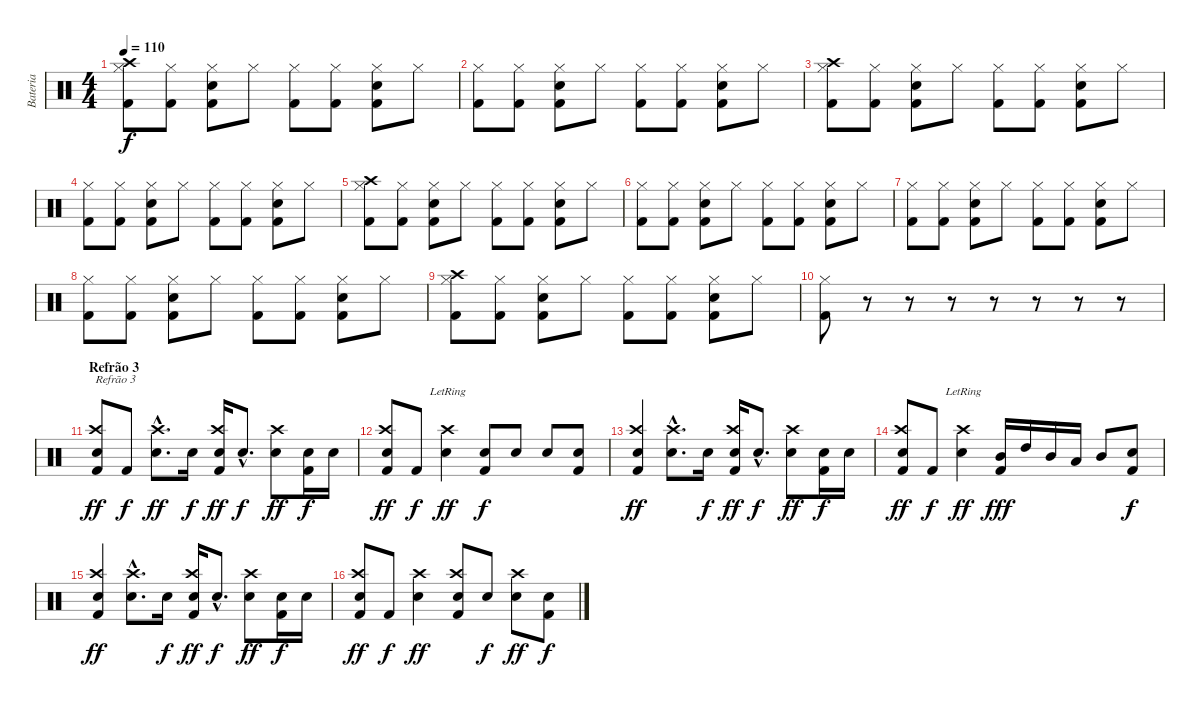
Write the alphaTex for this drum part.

\track ("Bateria" "Bateria") {instrument percussion}
\staff {score}
\articulation defaults
\ts (4 4)
\tempo 110
\clef neutral
\ks c
("Hi-Hat (closed)" "Kick (hit) 2" "Crash high (hit)").8{dy f} ("Hi-Hat (closed)" "Kick (hit) 2").8 ("Hi-Hat (closed)" "Kick (hit) 2" "Metronome (bell)").8 "Hi-Hat (closed)".8 ("Hi-Hat (closed)" "Kick (hit) 2").8 ("Hi-Hat (closed)" "Kick (hit) 2").8 ("Hi-Hat (closed)" "Kick (hit) 2" "Metronome (bell)").8 "Hi-Hat (closed)".8 |
("Hi-Hat (closed)" "Kick (hit) 2").8 ("Hi-Hat (closed)" "Kick (hit) 2").8 ("Hi-Hat (closed)" "Kick (hit) 2" "Metronome (bell)").8 "Hi-Hat (closed)".8 ("Hi-Hat (closed)" "Kick (hit) 2").8 ("Hi-Hat (closed)" "Kick (hit) 2").8 ("Hi-Hat (closed)" "Kick (hit) 2" "Metronome (bell)").8 "Hi-Hat (closed)".8 |
("Hi-Hat (closed)" "Kick (hit) 2" "Crash high (hit)").8 ("Hi-Hat (closed)" "Kick (hit) 2").8 ("Hi-Hat (closed)" "Kick (hit) 2" "Metronome (bell)").8 "Hi-Hat (closed)".8 ("Hi-Hat (closed)" "Kick (hit) 2").8 ("Hi-Hat (closed)" "Kick (hit) 2").8 ("Hi-Hat (closed)" "Kick (hit) 2" "Metronome (bell)").8 "Hi-Hat (closed)".8 |
("Hi-Hat (closed)" "Kick (hit) 2").8 ("Hi-Hat (closed)" "Kick (hit) 2").8 ("Hi-Hat (closed)" "Kick (hit) 2" "Metronome (bell)").8 "Hi-Hat (closed)".8 ("Hi-Hat (closed)" "Kick (hit) 2").8 ("Hi-Hat (closed)" "Kick (hit) 2").8 ("Hi-Hat (closed)" "Kick (hit) 2" "Metronome (bell)").8 "Hi-Hat (closed)".8 |
("Hi-Hat (closed)" "Kick (hit) 2" "Crash high (hit)").8 ("Hi-Hat (closed)" "Kick (hit) 2").8 ("Hi-Hat (closed)" "Kick (hit) 2" "Metronome (bell)").8 "Hi-Hat (closed)".8 ("Hi-Hat (closed)" "Kick (hit) 2").8 ("Hi-Hat (closed)" "Kick (hit) 2").8 ("Hi-Hat (closed)" "Kick (hit) 2" "Metronome (bell)").8 "Hi-Hat (closed)".8 |
("Hi-Hat (closed)" "Kick (hit) 2").8 ("Hi-Hat (closed)" "Kick (hit) 2").8 ("Hi-Hat (closed)" "Kick (hit) 2" "Metronome (bell)").8 "Hi-Hat (closed)".8 ("Hi-Hat (closed)" "Kick (hit) 2").8 ("Hi-Hat (closed)" "Kick (hit) 2").8 ("Hi-Hat (closed)" "Kick (hit) 2" "Metronome (bell)").8 "Hi-Hat (closed)".8 |
("Hi-Hat (closed)" "Kick (hit) 2").8 ("Hi-Hat (closed)" "Kick (hit) 2").8 ("Hi-Hat (closed)" "Kick (hit) 2" "Metronome (bell)").8 "Hi-Hat (closed)".8 ("Hi-Hat (closed)" "Kick (hit) 2").8 ("Hi-Hat (closed)" "Kick (hit) 2").8 ("Hi-Hat (closed)" "Kick (hit) 2" "Metronome (bell)").8 "Hi-Hat (closed)".8 |
("Hi-Hat (closed)" "Kick (hit) 2").8 ("Hi-Hat (closed)" "Kick (hit) 2").8 ("Hi-Hat (closed)" "Kick (hit) 2" "Metronome (bell)").8 "Hi-Hat (closed)".8 ("Hi-Hat (closed)" "Kick (hit) 2").8 ("Hi-Hat (closed)" "Kick (hit) 2").8 ("Hi-Hat (closed)" "Kick (hit) 2" "Metronome (bell)").8 "Hi-Hat (closed)".8 |
("Hi-Hat (closed)" "Kick (hit) 2" "Crash high (hit)").8 ("Hi-Hat (closed)" "Kick (hit) 2").8 ("Hi-Hat (closed)" "Kick (hit) 2" "Metronome (bell)").8 "Hi-Hat (closed)".8 ("Hi-Hat (closed)" "Kick (hit) 2").8 ("Hi-Hat (closed)" "Kick (hit) 2").8 ("Hi-Hat (closed)" "Kick (hit) 2" "Metronome (bell)").8 "Hi-Hat (closed)".8 |
("Hi-Hat (closed)" "Kick (hit) 2").8 r.8 r.8 r.8 r.8 r.8 r.8 r.8 |
\section ("" "Refrão 3")
("Kick (hit) 2" "Electric Snare (hit)" "Crash high (hit)").8{txt "Refrão 3" dy ff} "Kick (hit) 2".8{dy f} ("Electric Snare (hit)"{hac} "Crash high (hit)"{hac}).8{d dy ff} "Metronome (bell)".16{dy f} ("Kick (hit) 2" "Electric Snare (hit)" "Crash high (hit)").16{dy ff} "Metronome (bell)"{hac}.8{d dy f} ("Metronome (bell)" "Crash high (hit)").8{dy ff} ("Kick (hit) 2" "Metronome (bell)").16{dy f} "Electric Snare (hit)".16 |
("Kick (hit) 2" "Metronome (bell)" "Crash high (hit)").8{dy ff} "Kick (hit) 2".8{dy f} ("Electric Snare (hit)" "Crash high (hit)"{lr}).4{dy ff} ("Kick (hit) 2" "Metronome (bell)").8{dy f} "Metronome (bell)".8 "Metronome (bell)".8 ("Kick (hit) 2" "Metronome (bell)").8 |
("Kick (hit) 2" "Electric Snare (hit)" "Crash high (hit)").4{dy ff} ("Electric Snare (hit)"{hac} "Crash high (hit)"{hac}).8{d} "Metronome (bell)".16{dy f} ("Kick (hit) 2" "Electric Snare (hit)" "Crash high (hit)").16{dy ff} "Metronome (bell)"{hac}.8{d dy f} ("Metronome (bell)" "Crash high (hit)").8{dy ff} ("Kick (hit) 2" "Metronome (bell)").16{dy f} "Electric Snare (hit)".16 |
("Kick (hit) 2" "Electric Snare (hit)" "Crash high (hit)").8{dy ff} "Kick (hit) 2".8{dy f} ("Electric Snare (hit)" "Crash high (hit)"{lr}).4{dy ff} ("Kick (hit) 2" "Mid Tom (hit)").16{dy fff} "High Tom (hit)".16 "Mid Tom (hit)".16 "Low Tom (hit)".16 "Mid Tom (hit)".8 ("Kick (hit) 2" "Electric Snare (hit)").8{dy f} |
("Kick (hit) 2" "Electric Snare (hit)" "Crash high (hit)").4{dy ff} ("Electric Snare (hit)"{hac} "Crash high (hit)"{hac}).8{d} "Metronome (bell)".16{dy f} ("Kick (hit) 2" "Electric Snare (hit)" "Crash high (hit)").16{dy ff} "Metronome (bell)"{hac}.8{d dy f} ("Metronome (bell)" "Crash high (hit)").8{dy ff} ("Kick (hit) 2" "Metronome (bell)").16{dy f} "Electric Snare (hit)".16 |
("Kick (hit) 2" "Metronome (bell)" "Crash high (hit)").8{dy ff} "Kick (hit) 2".8{dy f} ("Electric Snare (hit)" "Crash high (hit)").4{dy ff} ("Kick (hit) 2" "Metronome (bell)" "Crash high (hit)").8 "Metronome (bell)".8{dy f} ("Metronome (bell)" "Crash high (hit)").8{dy ff} ("Kick (hit) 2" "Metronome (bell)").8{dy f}
